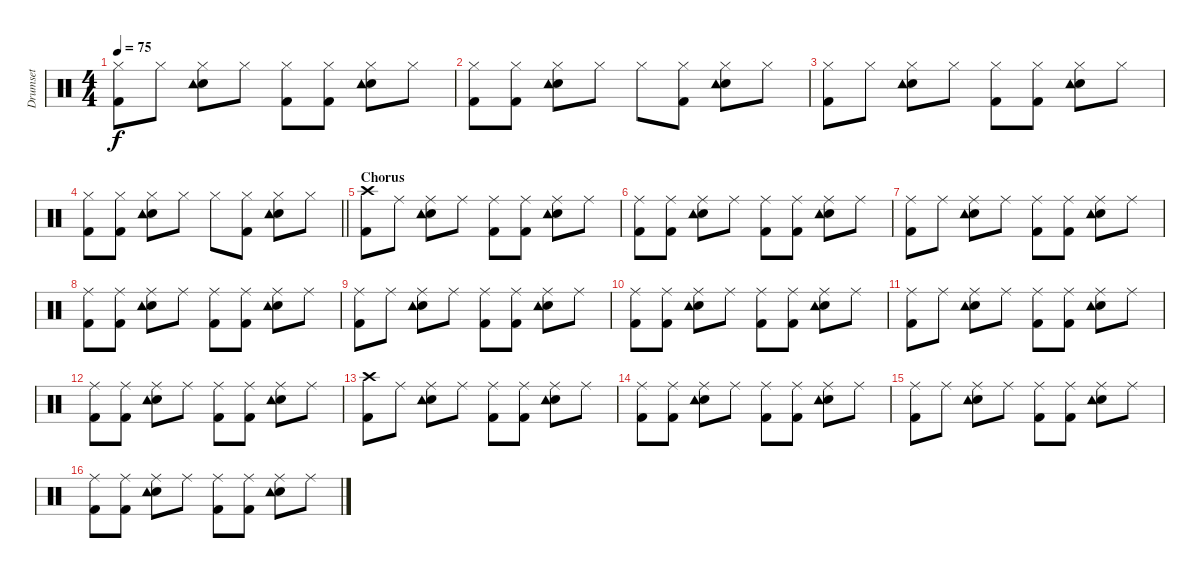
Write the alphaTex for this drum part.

\track ("Drumset" "Drumset") {instrument percussion}
\staff {score}
\articulation defaults
\ts (4 4)
\tempo 75
\clef neutral
\ks c
("Hi-Hat (closed)" "Kick (hit) 2").8{dy f} "Hi-Hat (closed)".8 ("Hi-Hat (closed)" "Electric Snare (hit)" "Tambourine (hit)").8 "Hi-Hat (closed)".8 ("Hi-Hat (closed)" "Kick (hit) 2").8 ("Hi-Hat (closed)" "Kick (hit) 2").8 ("Hi-Hat (closed)" "Electric Snare (hit)" "Tambourine (hit)").8 "Hi-Hat (closed)".8 |
("Hi-Hat (closed)" "Kick (hit) 2").8 ("Hi-Hat (closed)" "Kick (hit) 2").8 ("Hi-Hat (closed)" "Electric Snare (hit)" "Tambourine (hit)").8 "Hi-Hat (closed)".8 "Hi-Hat (closed)".8 ("Hi-Hat (closed)" "Kick (hit) 2").8 ("Hi-Hat (closed)" "Electric Snare (hit)" "Tambourine (hit)").8 "Hi-Hat (closed)".8 |
("Hi-Hat (closed)" "Kick (hit) 2").8 "Hi-Hat (closed)".8 ("Hi-Hat (closed)" "Electric Snare (hit)" "Tambourine (hit)").8 "Hi-Hat (closed)".8 ("Hi-Hat (closed)" "Kick (hit) 2").8 ("Hi-Hat (closed)" "Kick (hit) 2").8 ("Hi-Hat (closed)" "Electric Snare (hit)" "Tambourine (hit)").8 "Hi-Hat (closed)".8 |
\barLineRight lightlight
("Hi-Hat (closed)" "Kick (hit) 2").8 ("Hi-Hat (closed)" "Kick (hit) 2").8 ("Hi-Hat (closed)" "Electric Snare (hit)" "Tambourine (hit)").8 "Hi-Hat (closed)".8 "Hi-Hat (closed)".8 ("Hi-Hat (closed)" "Kick (hit) 2").8 ("Hi-Hat (closed)" "Electric Snare (hit)" "Tambourine (hit)").8 "Hi-Hat (closed)".8 |
\section ("" "Chorus")
("Crash high (hit)" "Kick (hit) 2").8 "Ride (middle)".8 ("Ride (middle)" "Electric Snare (hit)" "Tambourine (hit)").8 "Ride (middle)".8 ("Ride (middle)" "Kick (hit) 2").8 ("Ride (middle)" "Kick (hit) 2").8 ("Ride (middle)" "Electric Snare (hit)" "Tambourine (hit)").8 "Ride (middle)".8 |
("Ride (middle)" "Kick (hit) 2").8 ("Ride (middle)" "Kick (hit) 2").8 ("Ride (middle)" "Electric Snare (hit)" "Tambourine (hit)").8 "Ride (middle)".8 ("Ride (middle)" "Kick (hit) 2").8 ("Ride (middle)" "Kick (hit) 2").8 ("Ride (middle)" "Electric Snare (hit)" "Tambourine (hit)").8 "Ride (middle)".8 |
("Ride (middle)" "Kick (hit) 2").8 "Ride (middle)".8 ("Ride (middle)" "Electric Snare (hit)" "Tambourine (hit)").8 "Ride (middle)".8 ("Ride (middle)" "Kick (hit) 2").8 ("Ride (middle)" "Kick (hit) 2").8 ("Ride (middle)" "Electric Snare (hit)" "Tambourine (hit)").8 "Ride (middle)".8 |
("Ride (middle)" "Kick (hit) 2").8 ("Ride (middle)" "Kick (hit) 2").8 ("Ride (middle)" "Electric Snare (hit)" "Tambourine (hit)").8 "Ride (middle)".8 ("Ride (middle)" "Kick (hit) 2").8 ("Ride (middle)" "Kick (hit) 2").8 ("Ride (middle)" "Electric Snare (hit)" "Tambourine (hit)").8 "Ride (middle)".8 |
("Ride (middle)" "Kick (hit) 2").8 "Ride (middle)".8 ("Ride (middle)" "Electric Snare (hit)" "Tambourine (hit)").8 "Ride (middle)".8 ("Ride (middle)" "Kick (hit) 2").8 ("Ride (middle)" "Kick (hit) 2").8 ("Ride (middle)" "Electric Snare (hit)" "Tambourine (hit)").8 "Ride (middle)".8 |
("Ride (middle)" "Kick (hit) 2").8 ("Ride (middle)" "Kick (hit) 2").8 ("Ride (middle)" "Electric Snare (hit)" "Tambourine (hit)").8 "Ride (middle)".8 ("Ride (middle)" "Kick (hit) 2").8 ("Ride (middle)" "Kick (hit) 2").8 ("Ride (middle)" "Electric Snare (hit)" "Tambourine (hit)").8 "Ride (middle)".8 |
("Ride (middle)" "Kick (hit) 2").8 "Ride (middle)".8 ("Ride (middle)" "Electric Snare (hit)" "Tambourine (hit)").8 "Ride (middle)".8 ("Ride (middle)" "Kick (hit) 2").8 ("Ride (middle)" "Kick (hit) 2").8 ("Ride (middle)" "Electric Snare (hit)" "Tambourine (hit)").8 "Ride (middle)".8 |
("Ride (middle)" "Kick (hit) 2").8 ("Ride (middle)" "Kick (hit) 2").8 ("Ride (middle)" "Electric Snare (hit)" "Tambourine (hit)").8 "Ride (middle)".8 ("Ride (middle)" "Kick (hit) 2").8 ("Ride (middle)" "Kick (hit) 2").8 ("Ride (middle)" "Electric Snare (hit)" "Tambourine (hit)").8 "Ride (middle)".8 |
("Crash high (hit)" "Kick (hit) 2").8 "Ride (middle)".8 ("Ride (middle)" "Electric Snare (hit)" "Tambourine (hit)").8 "Ride (middle)".8 ("Ride (middle)" "Kick (hit) 2").8 ("Ride (middle)" "Kick (hit) 2").8 ("Ride (middle)" "Electric Snare (hit)" "Tambourine (hit)").8 "Ride (middle)".8 |
("Ride (middle)" "Kick (hit) 2").8 ("Ride (middle)" "Kick (hit) 2").8 ("Ride (middle)" "Electric Snare (hit)" "Tambourine (hit)").8 "Ride (middle)".8 ("Ride (middle)" "Kick (hit) 2").8 ("Ride (middle)" "Kick (hit) 2").8 ("Ride (middle)" "Electric Snare (hit)" "Tambourine (hit)").8 "Ride (middle)".8 |
("Ride (middle)" "Kick (hit) 2").8 "Ride (middle)".8 ("Ride (middle)" "Electric Snare (hit)" "Tambourine (hit)").8 "Ride (middle)".8 ("Ride (middle)" "Kick (hit) 2").8 ("Ride (middle)" "Kick (hit) 2").8 ("Ride (middle)" "Electric Snare (hit)" "Tambourine (hit)").8 "Ride (middle)".8 |
("Ride (middle)" "Kick (hit) 2").8 ("Ride (middle)" "Kick (hit) 2").8 ("Ride (middle)" "Electric Snare (hit)" "Tambourine (hit)").8 "Ride (middle)".8 ("Ride (middle)" "Kick (hit) 2").8 ("Ride (middle)" "Kick (hit) 2").8 ("Ride (middle)" "Electric Snare (hit)" "Tambourine (hit)").8 "Ride (middle)".8
